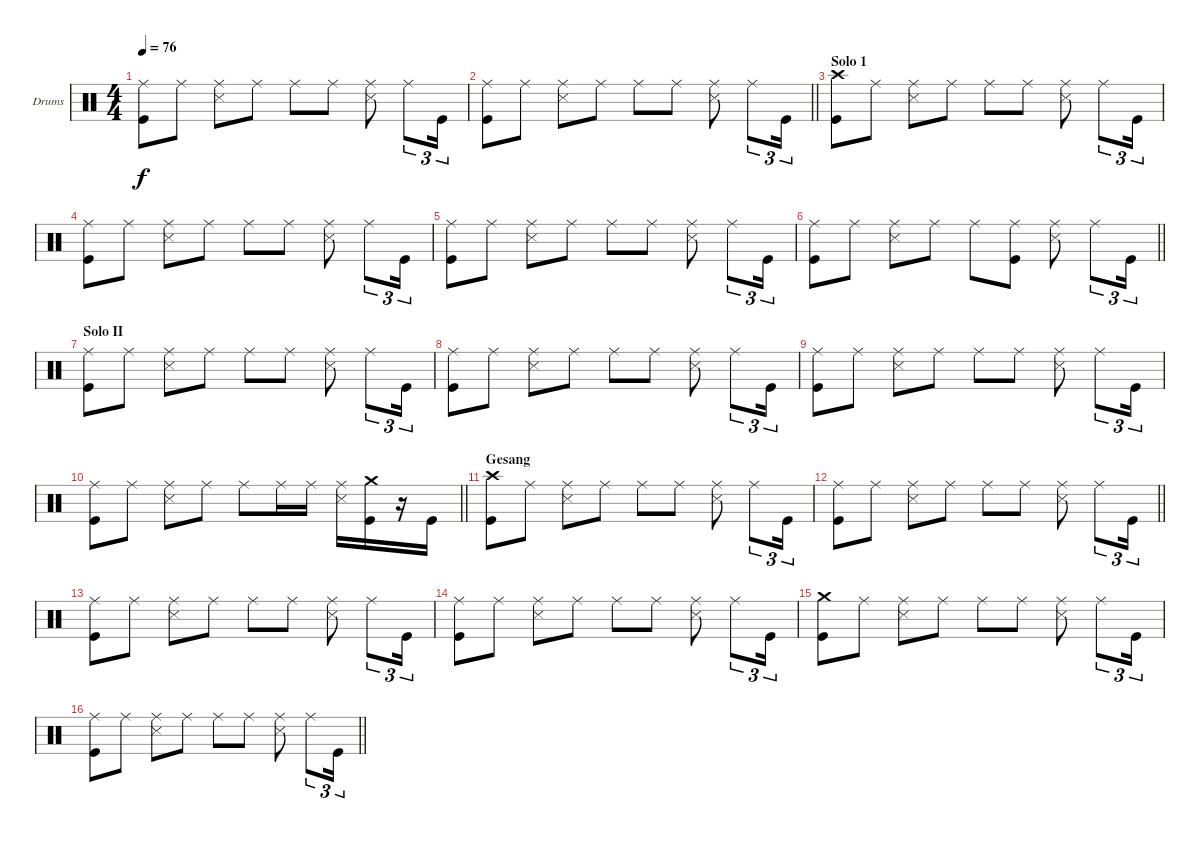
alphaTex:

\bracketExtendMode groupsimilarinstruments
\firstSystemTrackNameOrientation horizontal
\otherSystemsTrackNameOrientation horizontal
\track ("Drumkit" "Drums") {instrument percussion}
\staff {score}
\articulation defaults
\ts (4 4)
\tempo 76
\clef neutral
\ks c
("Ride (middle)" "Kick (hit)").8{dy f} "Ride (middle)".8 ("Ride (middle)" "Snare (side stick) 3").8 "Ride (middle)".8 "Ride (middle)".8 "Ride (middle)".8 ("Ride (middle)" "Snare (side stick) 3").8 "Ride (middle)".8{tu (3 2)} "Kick (hit)".16{tu (3 2)} |
\barLineRight lightlight
("Ride (middle)" "Kick (hit)").8 "Ride (middle)".8 ("Ride (middle)" "Snare (side stick) 3").8 "Ride (middle)".8 "Ride (middle)".8 "Ride (middle)".8 ("Ride (middle)" "Snare (side stick) 3").8 "Ride (middle)".8{tu (3 2)} "Kick (hit)".16{tu (3 2)} |
\section ("" "Solo 1")
("Crash high (hit)" "Kick (hit)").8 "Ride (middle)".8 ("Ride (middle)" "Snare (side stick) 3").8 "Ride (middle)".8 "Ride (middle)".8 "Ride (middle)".8 ("Ride (middle)" "Snare (side stick) 3").8 "Ride (middle)".8{tu (3 2)} "Kick (hit)".16{tu (3 2)} |
("Ride (middle)" "Kick (hit)").8 "Ride (middle)".8 ("Ride (middle)" "Snare (side stick) 3").8 "Ride (middle)".8 "Ride (middle)".8 "Ride (middle)".8 ("Ride (middle)" "Snare (side stick) 3").8 "Ride (middle)".8{tu (3 2)} "Kick (hit)".16{tu (3 2)} |
("Ride (middle)" "Kick (hit)").8 "Ride (middle)".8 ("Ride (middle)" "Snare (side stick) 3").8 "Ride (middle)".8 "Ride (middle)".8 "Ride (middle)".8 ("Ride (middle)" "Snare (side stick) 3").8 "Ride (middle)".8{tu (3 2)} "Kick (hit)".16{tu (3 2)} |
\barLineRight lightlight
("Ride (middle)" "Kick (hit)").8 "Ride (middle)".8 ("Ride (middle)" "Snare (side stick) 3").8 "Ride (middle)".8 "Ride (middle)".8 ("Ride (middle)" "Kick (hit)").8 ("Ride (middle)" "Snare (side stick) 3").8 "Ride (middle)".8{tu (3 2)} "Kick (hit)".16{tu (3 2)} |
\section ("" "Solo II")
("Ride (middle)" "Kick (hit)").8 "Ride (middle)".8 ("Ride (middle)" "Snare (side stick) 3").8 "Ride (middle)".8 "Ride (middle)".8 "Ride (middle)".8 ("Ride (middle)" "Snare (side stick) 3").8 "Ride (middle)".8{tu (3 2)} "Kick (hit)".16{tu (3 2)} |
("Ride (middle)" "Kick (hit)").8 "Ride (middle)".8 ("Ride (middle)" "Snare (side stick) 3").8 "Ride (middle)".8 "Ride (middle)".8 "Ride (middle)".8 ("Ride (middle)" "Snare (side stick) 3").8 "Ride (middle)".8{tu (3 2)} "Kick (hit)".16{tu (3 2)} |
("Ride (middle)" "Kick (hit)").8 "Ride (middle)".8 ("Ride (middle)" "Snare (side stick) 3").8 "Ride (middle)".8 "Ride (middle)".8 "Ride (middle)".8 ("Ride (middle)" "Snare (side stick) 3").8 "Ride (middle)".8{tu (3 2)} "Kick (hit)".16{tu (3 2)} |
\barLineRight lightlight
("Ride (middle)" "Kick (hit)").8 "Ride (middle)".8 ("Ride (middle)" "Snare (side stick) 3").8 "Ride (middle)".8 "Ride (middle)".8 "Ride (middle)".16 "Ride (middle)".16 ("Ride (middle)" "Snare (side stick) 3").16 ("Kick (hit)" "Crash medium (hit)").16 r.16 "Kick (hit)".16 |
\section ("" "Gesang")
("Crash high (hit)" "Kick (hit)").8 "Ride (middle)".8 ("Ride (middle)" "Snare (side stick) 3").8 "Ride (middle)".8 "Ride (middle)".8 "Ride (middle)".8 ("Ride (middle)" "Snare (side stick) 3").8 "Ride (middle)".8{tu (3 2)} "Kick (hit)".16{tu (3 2)} |
\barLineRight lightlight
("Ride (middle)" "Kick (hit)").8 "Ride (middle)".8 ("Ride (middle)" "Snare (side stick) 3").8 "Ride (middle)".8 "Ride (middle)".8 "Ride (middle)".8 ("Ride (middle)" "Snare (side stick) 3").8 "Ride (middle)".8{tu (3 2)} "Kick (hit)".16{tu (3 2)} |
("Ride (middle)" "Kick (hit)").8 "Ride (middle)".8 ("Ride (middle)" "Snare (side stick) 3").8 "Ride (middle)".8 "Ride (middle)".8 "Ride (middle)".8 ("Ride (middle)" "Snare (side stick) 3").8 "Ride (middle)".8{tu (3 2)} "Kick (hit)".16{tu (3 2)} |
("Ride (middle)" "Kick (hit)").8 "Ride (middle)".8 ("Ride (middle)" "Snare (side stick) 3").8 "Ride (middle)".8 "Ride (middle)".8 "Ride (middle)".8 ("Ride (middle)" "Snare (side stick) 3").8 "Ride (middle)".8{tu (3 2)} "Kick (hit)".16{tu (3 2)} |
("Crash medium (hit)" "Kick (hit)").8 "Ride (middle)".8 ("Ride (middle)" "Snare (side stick) 3").8 "Ride (middle)".8 "Ride (middle)".8 "Ride (middle)".8 ("Ride (middle)" "Snare (side stick) 3").8 "Ride (middle)".8{tu (3 2)} "Kick (hit)".16{tu (3 2)} |
\barLineRight lightlight
("Ride (middle)" "Kick (hit)").8 "Ride (middle)".8 ("Ride (middle)" "Snare (side stick) 3").8 "Ride (middle)".8 "Ride (middle)".8 "Ride (middle)".8 ("Ride (middle)" "Snare (side stick) 3").8 "Ride (middle)".8{tu (3 2)} "Kick (hit)".16{tu (3 2)}
